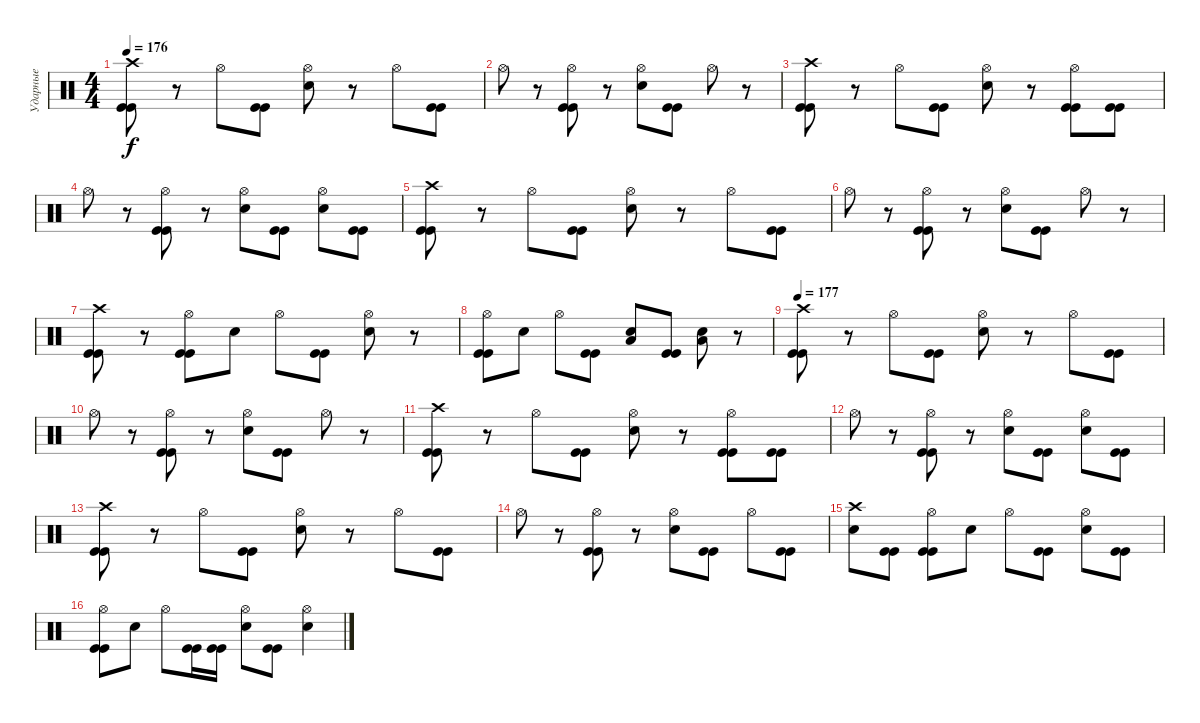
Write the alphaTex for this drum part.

\track ("Ударные" "Ударные") {instrument percussion}
\staff {score}
\articulation defaults
\ts (4 4)
\tempo 176
\clef neutral
\ks c
("Crash high (hit)" "Kick (hit)" "Kick (hit)").8{dy f} r.8 "Hi-Hat (open)".8 ("Kick (hit)" "Kick (hit)").8 ("Hi-Hat (open)" "Snare (hit) 2").8 r.8 "Hi-Hat (open)".8 ("Kick (hit)" "Kick (hit)").8 |
"Hi-Hat (open)".8 r.8 ("Hi-Hat (open)" "Kick (hit)" "Kick (hit)").8 r.8 ("Hi-Hat (open)" "Snare (hit) 2").8 ("Kick (hit)" "Kick (hit)").8 "Hi-Hat (open)".8 r.8 |
("Crash high (hit)" "Kick (hit)" "Kick (hit)").8 r.8 "Hi-Hat (open)".8 ("Kick (hit)" "Kick (hit)").8 ("Hi-Hat (open)" "Snare (hit) 2").8 r.8 ("Hi-Hat (open)" "Kick (hit)" "Kick (hit)").8 ("Kick (hit)" "Kick (hit)").8 |
"Hi-Hat (open)".8 r.8 ("Hi-Hat (open)" "Kick (hit)" "Kick (hit)").8 r.8 ("Hi-Hat (open)" "Snare (hit) 2").8 ("Kick (hit)" "Kick (hit)").8 ("Hi-Hat (open)" "Snare (hit) 2").8 ("Kick (hit)" "Kick (hit)").8 |
("Crash high (hit)" "Kick (hit)" "Kick (hit)").8 r.8 "Hi-Hat (open)".8 ("Kick (hit)" "Kick (hit)").8 ("Hi-Hat (open)" "Snare (hit) 2").8 r.8 "Hi-Hat (open)".8 ("Kick (hit)" "Kick (hit)").8 |
"Hi-Hat (open)".8 r.8 ("Hi-Hat (open)" "Kick (hit)" "Kick (hit)").8 r.8 ("Hi-Hat (open)" "Snare (hit) 2").8 ("Kick (hit)" "Kick (hit)").8 "Hi-Hat (open)".8 r.8 |
("Crash high (hit)" "Kick (hit)" "Kick (hit)").8 r.8 ("Hi-Hat (open)" "Kick (hit)" "Kick (hit)").8 "Snare (hit) 2".8 "Hi-Hat (open)".8 ("Kick (hit)" "Kick (hit)").8 ("Hi-Hat (open)" "Snare (hit) 2").8 r.8 |
("Hi-Hat (open)" "Kick (hit)" "Kick (hit)").8 "Snare (hit) 2".8 "Hi-Hat (open)".8 ("Kick (hit)" "Kick (hit)").8 ("Snare (hit) 2" "Low Floor Tom (hit)").8 ("Kick (hit)" "Kick (hit)").8 ("Snare (hit) 2" "Low Floor Tom (hit)").8 r.8 |
\tempo 177
("Crash high (hit)" "Kick (hit)" "Kick (hit)").8 r.8 "Hi-Hat (open)".8 ("Kick (hit)" "Kick (hit)").8 ("Hi-Hat (open)" "Snare (hit) 2").8 r.8 "Hi-Hat (open)".8 ("Kick (hit)" "Kick (hit)").8 |
"Hi-Hat (open)".8 r.8 ("Hi-Hat (open)" "Kick (hit)" "Kick (hit)").8 r.8 ("Hi-Hat (open)" "Snare (hit) 2").8 ("Kick (hit)" "Kick (hit)").8 "Hi-Hat (open)".8 r.8 |
("Crash high (hit)" "Kick (hit)" "Kick (hit)").8 r.8 "Hi-Hat (open)".8 ("Kick (hit)" "Kick (hit)").8 ("Hi-Hat (open)" "Snare (hit) 2").8 r.8 ("Hi-Hat (open)" "Kick (hit)" "Kick (hit)").8 ("Kick (hit)" "Kick (hit)").8 |
"Hi-Hat (open)".8 r.8 ("Hi-Hat (open)" "Kick (hit)" "Kick (hit)").8 r.8 ("Hi-Hat (open)" "Snare (hit) 2").8 ("Kick (hit)" "Kick (hit)").8 ("Hi-Hat (open)" "Snare (hit) 2").8 ("Kick (hit)" "Kick (hit)").8 |
("Crash high (hit)" "Kick (hit)" "Kick (hit)").8 r.8 "Hi-Hat (open)".8 ("Kick (hit)" "Kick (hit)").8 ("Hi-Hat (open)" "Snare (hit) 2").8 r.8 "Hi-Hat (open)".8 ("Kick (hit)" "Kick (hit)").8 |
"Hi-Hat (open)".8 r.8 ("Hi-Hat (open)" "Kick (hit)" "Kick (hit)").8 r.8 ("Hi-Hat (open)" "Snare (hit) 2").8 ("Kick (hit)" "Kick (hit)").8 "Hi-Hat (open)".8 ("Kick (hit)" "Kick (hit)").8 |
("Crash high (hit)" "Snare (hit) 2").8 ("Kick (hit)" "Kick (hit)").8 ("Hi-Hat (open)" "Kick (hit)" "Kick (hit)").8 "Snare (hit) 2".8 "Hi-Hat (open)".8 ("Kick (hit)" "Kick (hit)").8 ("Hi-Hat (open)" "Snare (hit) 2").8 ("Kick (hit)" "Kick (hit)").8 |
("Hi-Hat (open)" "Kick (hit)" "Kick (hit)").8 "Snare (hit) 2".8 "Hi-Hat (open)".8 ("Kick (hit)" "Kick (hit)").16 ("Kick (hit)" "Kick (hit)").16 ("Hi-Hat (open)" "Snare (hit) 2").8 ("Kick (hit)" "Kick (hit)").8 ("Hi-Hat (open)" "Snare (hit) 2").4
